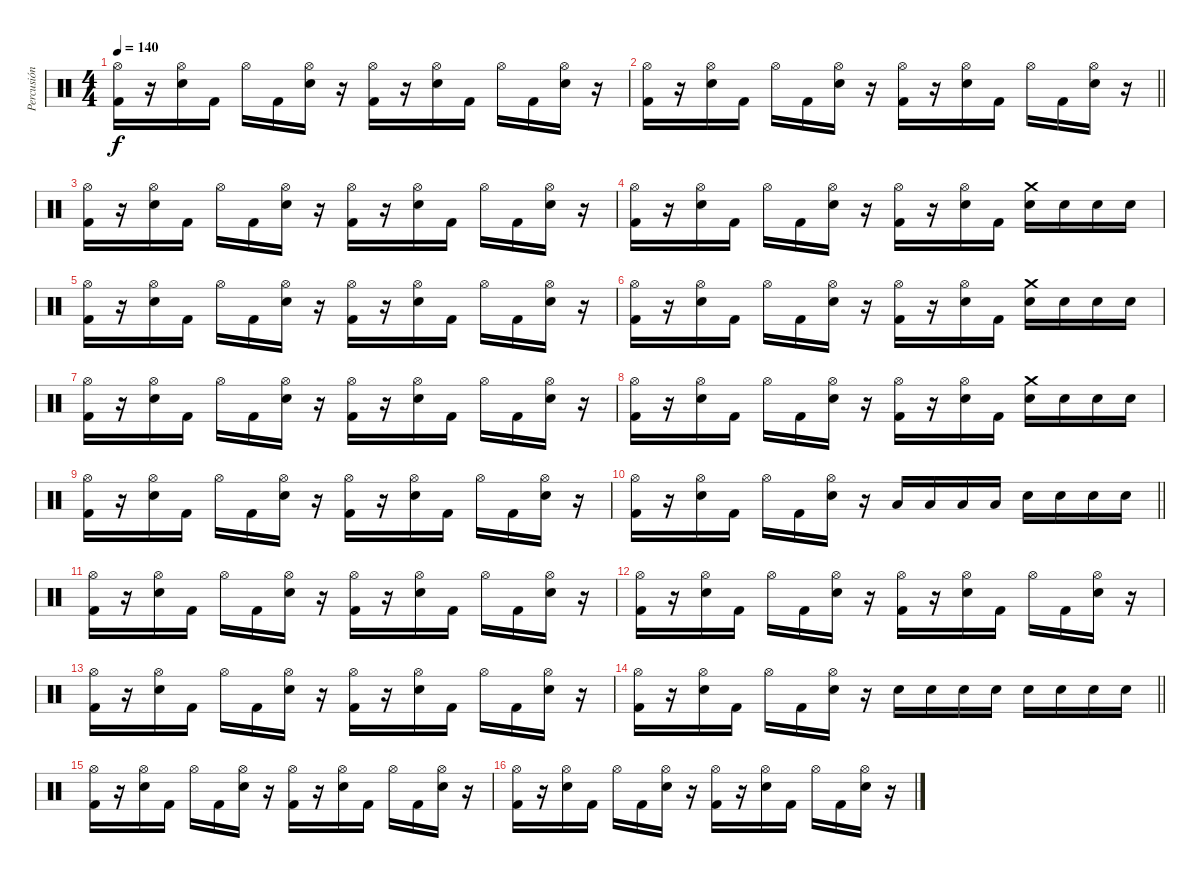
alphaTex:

\track ("Percusión" "Percusión") {instrument percussion}
\staff {score}
\articulation defaults
\ts (4 4)
\tempo 140
\clef neutral
\ks c
("Hi-Hat (open)" "Kick (hit) 2").16{dy f} r.16 ("Hi-Hat (open)" "Electric Snare (hit)").16 "Kick (hit) 2".16 "Hi-Hat (open)".16 "Kick (hit) 2".16 ("Hi-Hat (open)" "Electric Snare (hit)").16 r.16 ("Hi-Hat (open)" "Kick (hit) 2").16 r.16 ("Hi-Hat (open)" "Electric Snare (hit)").16 "Kick (hit) 2".16 "Hi-Hat (open)".16 "Kick (hit) 2".16 ("Hi-Hat (open)" "Electric Snare (hit)").16 r.16 |
\barLineRight lightlight
("Hi-Hat (open)" "Kick (hit) 2").16 r.16 ("Hi-Hat (open)" "Electric Snare (hit)").16 "Kick (hit) 2".16 "Hi-Hat (open)".16 "Kick (hit) 2".16 ("Hi-Hat (open)" "Electric Snare (hit)").16 r.16 ("Hi-Hat (open)" "Kick (hit) 2").16 r.16 ("Hi-Hat (open)" "Electric Snare (hit)").16 "Kick (hit) 2".16 "Hi-Hat (open)".16 "Kick (hit) 2".16 ("Hi-Hat (open)" "Electric Snare (hit)").16 r.16 |
("Hi-Hat (open)" "Kick (hit) 2").16 r.16 ("Hi-Hat (open)" "Electric Snare (hit)").16 "Kick (hit) 2".16 "Hi-Hat (open)".16 "Kick (hit) 2".16 ("Hi-Hat (open)" "Electric Snare (hit)").16 r.16 ("Hi-Hat (open)" "Kick (hit) 2").16 r.16 ("Hi-Hat (open)" "Electric Snare (hit)").16 "Kick (hit) 2".16 "Hi-Hat (open)".16 "Kick (hit) 2".16 ("Hi-Hat (open)" "Electric Snare (hit)").16 r.16 |
("Hi-Hat (open)" "Kick (hit) 2").16 r.16 ("Hi-Hat (open)" "Electric Snare (hit)").16 "Kick (hit) 2".16 "Hi-Hat (open)".16 "Kick (hit) 2".16 ("Hi-Hat (open)" "Electric Snare (hit)").16 r.16 ("Hi-Hat (open)" "Kick (hit) 2").16 r.16 ("Hi-Hat (open)" "Electric Snare (hit)").16 "Kick (hit) 2".16 ("Crash medium (hit)" "Electric Snare (hit)").16 "Electric Snare (hit)".16 "Electric Snare (hit)".16 "Electric Snare (hit)".16 |
("Hi-Hat (open)" "Kick (hit) 2").16 r.16 ("Hi-Hat (open)" "Electric Snare (hit)").16 "Kick (hit) 2".16 "Hi-Hat (open)".16 "Kick (hit) 2".16 ("Hi-Hat (open)" "Electric Snare (hit)").16 r.16 ("Hi-Hat (open)" "Kick (hit) 2").16 r.16 ("Hi-Hat (open)" "Electric Snare (hit)").16 "Kick (hit) 2".16 "Hi-Hat (open)".16 "Kick (hit) 2".16 ("Hi-Hat (open)" "Electric Snare (hit)").16 r.16 |
("Hi-Hat (open)" "Kick (hit) 2").16 r.16 ("Hi-Hat (open)" "Electric Snare (hit)").16 "Kick (hit) 2".16 "Hi-Hat (open)".16 "Kick (hit) 2".16 ("Hi-Hat (open)" "Electric Snare (hit)").16 r.16 ("Hi-Hat (open)" "Kick (hit) 2").16 r.16 ("Hi-Hat (open)" "Electric Snare (hit)").16 "Kick (hit) 2".16 ("Crash medium (hit)" "Electric Snare (hit)").16 "Electric Snare (hit)".16 "Electric Snare (hit)".16 "Electric Snare (hit)".16 |
("Hi-Hat (open)" "Kick (hit) 2").16 r.16 ("Hi-Hat (open)" "Electric Snare (hit)").16 "Kick (hit) 2".16 "Hi-Hat (open)".16 "Kick (hit) 2".16 ("Hi-Hat (open)" "Electric Snare (hit)").16 r.16 ("Hi-Hat (open)" "Kick (hit) 2").16 r.16 ("Hi-Hat (open)" "Electric Snare (hit)").16 "Kick (hit) 2".16 "Hi-Hat (open)".16 "Kick (hit) 2".16 ("Hi-Hat (open)" "Electric Snare (hit)").16 r.16 |
("Hi-Hat (open)" "Kick (hit) 2").16 r.16 ("Hi-Hat (open)" "Electric Snare (hit)").16 "Kick (hit) 2".16 "Hi-Hat (open)".16 "Kick (hit) 2".16 ("Hi-Hat (open)" "Electric Snare (hit)").16 r.16 ("Hi-Hat (open)" "Kick (hit) 2").16 r.16 ("Hi-Hat (open)" "Electric Snare (hit)").16 "Kick (hit) 2".16 ("Crash medium (hit)" "Electric Snare (hit)").16 "Electric Snare (hit)".16 "Electric Snare (hit)".16 "Electric Snare (hit)".16 |
("Hi-Hat (open)" "Kick (hit) 2").16 r.16 ("Hi-Hat (open)" "Electric Snare (hit)").16 "Kick (hit) 2".16 "Hi-Hat (open)".16 "Kick (hit) 2".16 ("Hi-Hat (open)" "Electric Snare (hit)").16 r.16 ("Hi-Hat (open)" "Kick (hit) 2").16 r.16 ("Hi-Hat (open)" "Electric Snare (hit)").16 "Kick (hit) 2".16 "Hi-Hat (open)".16 "Kick (hit) 2".16 ("Hi-Hat (open)" "Electric Snare (hit)").16 r.16 |
\barLineRight lightlight
("Hi-Hat (open)" "Kick (hit) 2").16 r.16 ("Hi-Hat (open)" "Electric Snare (hit)").16 "Kick (hit) 2".16 "Hi-Hat (open)".16 "Kick (hit) 2".16 ("Hi-Hat (open)" "Electric Snare (hit)").16 r.16 "Low Tom (hit)".16 "Low Tom (hit)".16 "Low Tom (hit)".16 "Low Tom (hit)".16 "Electric Snare (hit)".16 "Electric Snare (hit)".16 "Electric Snare (hit)".16 "Electric Snare (hit)".16 |
("Hi-Hat (open)" "Kick (hit) 2").16 r.16 ("Hi-Hat (open)" "Electric Snare (hit)").16 "Kick (hit) 2".16 "Hi-Hat (open)".16 "Kick (hit) 2".16 ("Hi-Hat (open)" "Electric Snare (hit)").16 r.16 ("Hi-Hat (open)" "Kick (hit) 2").16 r.16 ("Hi-Hat (open)" "Electric Snare (hit)").16 "Kick (hit) 2".16 "Hi-Hat (open)".16 "Kick (hit) 2".16 ("Hi-Hat (open)" "Electric Snare (hit)").16 r.16 |
("Hi-Hat (open)" "Kick (hit) 2").16 r.16 ("Hi-Hat (open)" "Electric Snare (hit)").16 "Kick (hit) 2".16 "Hi-Hat (open)".16 "Kick (hit) 2".16 ("Hi-Hat (open)" "Electric Snare (hit)").16 r.16 ("Hi-Hat (open)" "Kick (hit) 2").16 r.16 ("Hi-Hat (open)" "Electric Snare (hit)").16 "Kick (hit) 2".16 "Hi-Hat (open)".16 "Kick (hit) 2".16 ("Hi-Hat (open)" "Electric Snare (hit)").16 r.16 |
("Hi-Hat (open)" "Kick (hit) 2").16 r.16 ("Hi-Hat (open)" "Electric Snare (hit)").16 "Kick (hit) 2".16 "Hi-Hat (open)".16 "Kick (hit) 2".16 ("Hi-Hat (open)" "Electric Snare (hit)").16 r.16 ("Hi-Hat (open)" "Kick (hit) 2").16 r.16 ("Hi-Hat (open)" "Electric Snare (hit)").16 "Kick (hit) 2".16 "Hi-Hat (open)".16 "Kick (hit) 2".16 ("Hi-Hat (open)" "Electric Snare (hit)").16 r.16 |
\barLineRight lightlight
("Hi-Hat (open)" "Kick (hit) 2").16 r.16 ("Hi-Hat (open)" "Electric Snare (hit)").16 "Kick (hit) 2".16 "Hi-Hat (open)".16 "Kick (hit) 2".16 ("Hi-Hat (open)" "Electric Snare (hit)").16 r.16 "Electric Snare (hit)".16 "Electric Snare (hit)".16 "Electric Snare (hit)".16 "Electric Snare (hit)".16 "Electric Snare (hit)".16 "Electric Snare (hit)".16 "Electric Snare (hit)".16 "Electric Snare (hit)".16 |
("Hi-Hat (open)" "Kick (hit) 2").16 r.16 ("Hi-Hat (open)" "Electric Snare (hit)").16 "Kick (hit) 2".16 "Hi-Hat (open)".16 "Kick (hit) 2".16 ("Hi-Hat (open)" "Electric Snare (hit)").16 r.16 ("Hi-Hat (open)" "Kick (hit) 2").16 r.16 ("Hi-Hat (open)" "Electric Snare (hit)").16 "Kick (hit) 2".16 "Hi-Hat (open)".16 "Kick (hit) 2".16 ("Hi-Hat (open)" "Electric Snare (hit)").16 r.16 |
("Hi-Hat (open)" "Kick (hit) 2").16 r.16 ("Hi-Hat (open)" "Electric Snare (hit)").16 "Kick (hit) 2".16 "Hi-Hat (open)".16 "Kick (hit) 2".16 ("Hi-Hat (open)" "Electric Snare (hit)").16 r.16 ("Hi-Hat (open)" "Kick (hit) 2").16 r.16 ("Hi-Hat (open)" "Electric Snare (hit)").16 "Kick (hit) 2".16 "Hi-Hat (open)".16 "Kick (hit) 2".16 ("Hi-Hat (open)" "Electric Snare (hit)").16 r.16
